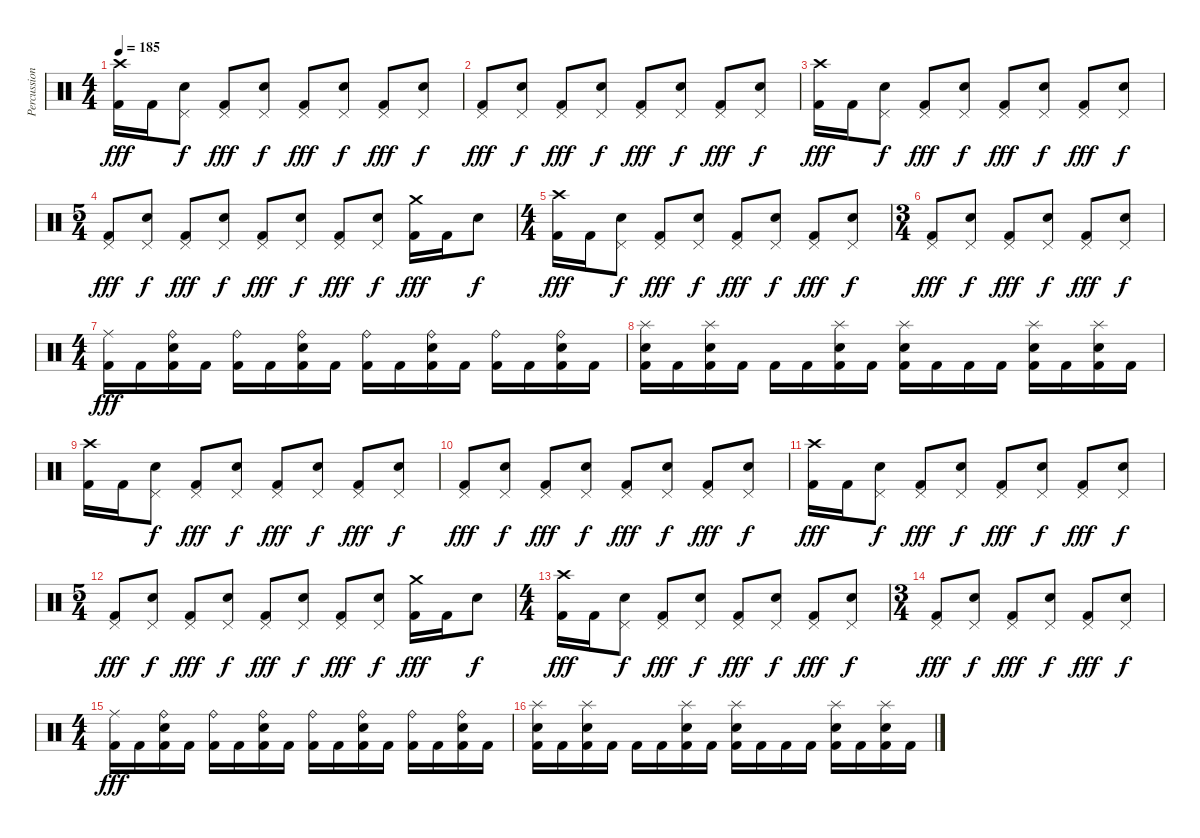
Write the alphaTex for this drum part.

\track ("Percussion" "Percussion") {instrument percussion}
\staff {score}
\articulation defaults
\ts (4 4)
\tempo 185
\clef neutral
\ks c
("Crash high (hit)" "Kick (hit) 2").16{dy fff} "Kick (hit) 2".16 ("Pedal Hi-Hat (hit)" "Electric Snare (hit)").8{dy f} ("Pedal Hi-Hat (hit)" "Kick (hit) 2").8{dy fff} ("Pedal Hi-Hat (hit)" "Electric Snare (hit)").8{dy f} ("Pedal Hi-Hat (hit)" "Kick (hit) 2").8{dy fff} ("Pedal Hi-Hat (hit)" "Electric Snare (hit)").8{dy f} ("Pedal Hi-Hat (hit)" "Kick (hit) 2").8{dy fff} ("Pedal Hi-Hat (hit)" "Electric Snare (hit)").8{dy f} |
("Pedal Hi-Hat (hit)" "Kick (hit) 2").8{dy fff} ("Pedal Hi-Hat (hit)" "Electric Snare (hit)").8{dy f} ("Pedal Hi-Hat (hit)" "Kick (hit) 2").8{dy fff} ("Pedal Hi-Hat (hit)" "Electric Snare (hit)").8{dy f} ("Pedal Hi-Hat (hit)" "Kick (hit) 2").8{dy fff} ("Pedal Hi-Hat (hit)" "Electric Snare (hit)").8{dy f} ("Pedal Hi-Hat (hit)" "Kick (hit) 2").8{dy fff} ("Pedal Hi-Hat (hit)" "Electric Snare (hit)").8{dy f} |
("Crash high (hit)" "Kick (hit) 2").16{dy fff} "Kick (hit) 2".16 ("Pedal Hi-Hat (hit)" "Electric Snare (hit)").8{dy f} ("Pedal Hi-Hat (hit)" "Kick (hit) 2").8{dy fff} ("Pedal Hi-Hat (hit)" "Electric Snare (hit)").8{dy f} ("Pedal Hi-Hat (hit)" "Kick (hit) 2").8{dy fff} ("Pedal Hi-Hat (hit)" "Electric Snare (hit)").8{dy f} ("Pedal Hi-Hat (hit)" "Kick (hit) 2").8{dy fff} ("Pedal Hi-Hat (hit)" "Electric Snare (hit)").8{dy f} |
\ts (5 4)
("Pedal Hi-Hat (hit)" "Kick (hit) 2").8{dy fff} ("Pedal Hi-Hat (hit)" "Electric Snare (hit)").8{dy f} ("Pedal Hi-Hat (hit)" "Kick (hit) 2").8{dy fff} ("Pedal Hi-Hat (hit)" "Electric Snare (hit)").8{dy f} ("Pedal Hi-Hat (hit)" "Kick (hit) 2").8{dy fff} ("Pedal Hi-Hat (hit)" "Electric Snare (hit)").8{dy f} ("Pedal Hi-Hat (hit)" "Kick (hit) 2").8{dy fff} ("Pedal Hi-Hat (hit)" "Electric Snare (hit)").8{dy f} ("Crash medium (hit)" "Kick (hit) 2").16{dy fff} "Kick (hit) 2".16 "Electric Snare (hit)".8{dy f} |
\ts (4 4)
("Crash high (hit)" "Kick (hit) 2").16{dy fff} "Kick (hit) 2".16 ("Pedal Hi-Hat (hit)" "Electric Snare (hit)").8{dy f} ("Pedal Hi-Hat (hit)" "Kick (hit) 2").8{dy fff} ("Pedal Hi-Hat (hit)" "Electric Snare (hit)").8{dy f} ("Pedal Hi-Hat (hit)" "Kick (hit) 2").8{dy fff} ("Pedal Hi-Hat (hit)" "Electric Snare (hit)").8{dy f} ("Pedal Hi-Hat (hit)" "Kick (hit) 2").8{dy fff} ("Pedal Hi-Hat (hit)" "Electric Snare (hit)").8{dy f} |
\ts (3 4)
("Pedal Hi-Hat (hit)" "Kick (hit) 2").8{dy fff} ("Pedal Hi-Hat (hit)" "Electric Snare (hit)").8{dy f} ("Pedal Hi-Hat (hit)" "Kick (hit) 2").8{dy fff} ("Pedal Hi-Hat (hit)" "Electric Snare (hit)").8{dy f} ("Pedal Hi-Hat (hit)" "Kick (hit) 2").8{dy fff} ("Pedal Hi-Hat (hit)" "Electric Snare (hit)").8{dy f} |
\ts (4 4)
("Ride (middle)" "Kick (hit) 2").16{dy fff} "Kick (hit) 2".16 ("Ride (bell)" "Electric Snare (hit)" "Kick (hit) 2").16 "Kick (hit) 2".16 ("Ride (bell)" "Kick (hit) 2").16 "Kick (hit) 2".16 ("Ride (bell)" "Electric Snare (hit)" "Kick (hit) 2").16 "Kick (hit) 2".16 ("Ride (bell)" "Kick (hit) 2").16 "Kick (hit) 2".16 ("Ride (bell)" "Electric Snare (hit)" "Kick (hit) 2").16 "Kick (hit) 2".16 ("Ride (bell)" "Kick (hit) 2").16 "Kick (hit) 2".16 ("Ride (bell)" "Electric Snare (hit)" "Kick (hit) 2").16 "Kick (hit) 2".16 |
("Splash (hit)" "Electric Snare (hit)" "Kick (hit) 2").16 "Kick (hit) 2".16 ("Splash (hit)" "Electric Snare (hit)" "Kick (hit) 2").16 "Kick (hit) 2".16 "Kick (hit) 2".16 "Kick (hit) 2".16 ("Splash (hit)" "Electric Snare (hit)" "Kick (hit) 2").16 "Kick (hit) 2".16 ("Splash (hit)" "Electric Snare (hit)" "Kick (hit) 2").16 "Kick (hit) 2".16 "Kick (hit) 2".16 "Kick (hit) 2".16 ("Splash (hit)" "Electric Snare (hit)" "Kick (hit) 2").16 "Kick (hit) 2".16 ("Splash (hit)" "Electric Snare (hit)" "Kick (hit) 2").16 "Kick (hit) 2".16 |
("Crash high (hit)" "Kick (hit) 2").16 "Kick (hit) 2".16 ("Pedal Hi-Hat (hit)" "Electric Snare (hit)").8{dy f} ("Pedal Hi-Hat (hit)" "Kick (hit) 2").8{dy fff} ("Pedal Hi-Hat (hit)" "Electric Snare (hit)").8{dy f} ("Pedal Hi-Hat (hit)" "Kick (hit) 2").8{dy fff} ("Pedal Hi-Hat (hit)" "Electric Snare (hit)").8{dy f} ("Pedal Hi-Hat (hit)" "Kick (hit) 2").8{dy fff} ("Pedal Hi-Hat (hit)" "Electric Snare (hit)").8{dy f} |
("Pedal Hi-Hat (hit)" "Kick (hit) 2").8{dy fff} ("Pedal Hi-Hat (hit)" "Electric Snare (hit)").8{dy f} ("Pedal Hi-Hat (hit)" "Kick (hit) 2").8{dy fff} ("Pedal Hi-Hat (hit)" "Electric Snare (hit)").8{dy f} ("Pedal Hi-Hat (hit)" "Kick (hit) 2").8{dy fff} ("Pedal Hi-Hat (hit)" "Electric Snare (hit)").8{dy f} ("Pedal Hi-Hat (hit)" "Kick (hit) 2").8{dy fff} ("Pedal Hi-Hat (hit)" "Electric Snare (hit)").8{dy f} |
("Crash high (hit)" "Kick (hit) 2").16{dy fff} "Kick (hit) 2".16 ("Pedal Hi-Hat (hit)" "Electric Snare (hit)").8{dy f} ("Pedal Hi-Hat (hit)" "Kick (hit) 2").8{dy fff} ("Pedal Hi-Hat (hit)" "Electric Snare (hit)").8{dy f} ("Pedal Hi-Hat (hit)" "Kick (hit) 2").8{dy fff} ("Pedal Hi-Hat (hit)" "Electric Snare (hit)").8{dy f} ("Pedal Hi-Hat (hit)" "Kick (hit) 2").8{dy fff} ("Pedal Hi-Hat (hit)" "Electric Snare (hit)").8{dy f} |
\ts (5 4)
("Pedal Hi-Hat (hit)" "Kick (hit) 2").8{dy fff} ("Pedal Hi-Hat (hit)" "Electric Snare (hit)").8{dy f} ("Pedal Hi-Hat (hit)" "Kick (hit) 2").8{dy fff} ("Pedal Hi-Hat (hit)" "Electric Snare (hit)").8{dy f} ("Pedal Hi-Hat (hit)" "Kick (hit) 2").8{dy fff} ("Pedal Hi-Hat (hit)" "Electric Snare (hit)").8{dy f} ("Pedal Hi-Hat (hit)" "Kick (hit) 2").8{dy fff} ("Pedal Hi-Hat (hit)" "Electric Snare (hit)").8{dy f} ("Crash medium (hit)" "Kick (hit) 2").16{dy fff} "Kick (hit) 2".16 "Electric Snare (hit)".8{dy f} |
\ts (4 4)
("Crash high (hit)" "Kick (hit) 2").16{dy fff} "Kick (hit) 2".16 ("Pedal Hi-Hat (hit)" "Electric Snare (hit)").8{dy f} ("Pedal Hi-Hat (hit)" "Kick (hit) 2").8{dy fff} ("Pedal Hi-Hat (hit)" "Electric Snare (hit)").8{dy f} ("Pedal Hi-Hat (hit)" "Kick (hit) 2").8{dy fff} ("Pedal Hi-Hat (hit)" "Electric Snare (hit)").8{dy f} ("Pedal Hi-Hat (hit)" "Kick (hit) 2").8{dy fff} ("Pedal Hi-Hat (hit)" "Electric Snare (hit)").8{dy f} |
\ts (3 4)
("Pedal Hi-Hat (hit)" "Kick (hit) 2").8{dy fff} ("Pedal Hi-Hat (hit)" "Electric Snare (hit)").8{dy f} ("Pedal Hi-Hat (hit)" "Kick (hit) 2").8{dy fff} ("Pedal Hi-Hat (hit)" "Electric Snare (hit)").8{dy f} ("Pedal Hi-Hat (hit)" "Kick (hit) 2").8{dy fff} ("Pedal Hi-Hat (hit)" "Electric Snare (hit)").8{dy f} |
\ts (4 4)
("Ride (middle)" "Kick (hit) 2").16{dy fff} "Kick (hit) 2".16 ("Ride (bell)" "Electric Snare (hit)" "Kick (hit) 2").16 "Kick (hit) 2".16 ("Ride (bell)" "Kick (hit) 2").16 "Kick (hit) 2".16 ("Ride (bell)" "Electric Snare (hit)" "Kick (hit) 2").16 "Kick (hit) 2".16 ("Ride (bell)" "Kick (hit) 2").16 "Kick (hit) 2".16 ("Ride (bell)" "Electric Snare (hit)" "Kick (hit) 2").16 "Kick (hit) 2".16 ("Ride (bell)" "Kick (hit) 2").16 "Kick (hit) 2".16 ("Ride (bell)" "Electric Snare (hit)" "Kick (hit) 2").16 "Kick (hit) 2".16 |
("Splash (hit)" "Electric Snare (hit)" "Kick (hit) 2").16 "Kick (hit) 2".16 ("Splash (hit)" "Electric Snare (hit)" "Kick (hit) 2").16 "Kick (hit) 2".16 "Kick (hit) 2".16 "Kick (hit) 2".16 ("Splash (hit)" "Electric Snare (hit)" "Kick (hit) 2").16 "Kick (hit) 2".16 ("Splash (hit)" "Electric Snare (hit)" "Kick (hit) 2").16 "Kick (hit) 2".16 "Kick (hit) 2".16 "Kick (hit) 2".16 ("Splash (hit)" "Electric Snare (hit)" "Kick (hit) 2").16 "Kick (hit) 2".16 ("Splash (hit)" "Electric Snare (hit)" "Kick (hit) 2").16 "Kick (hit) 2".16
